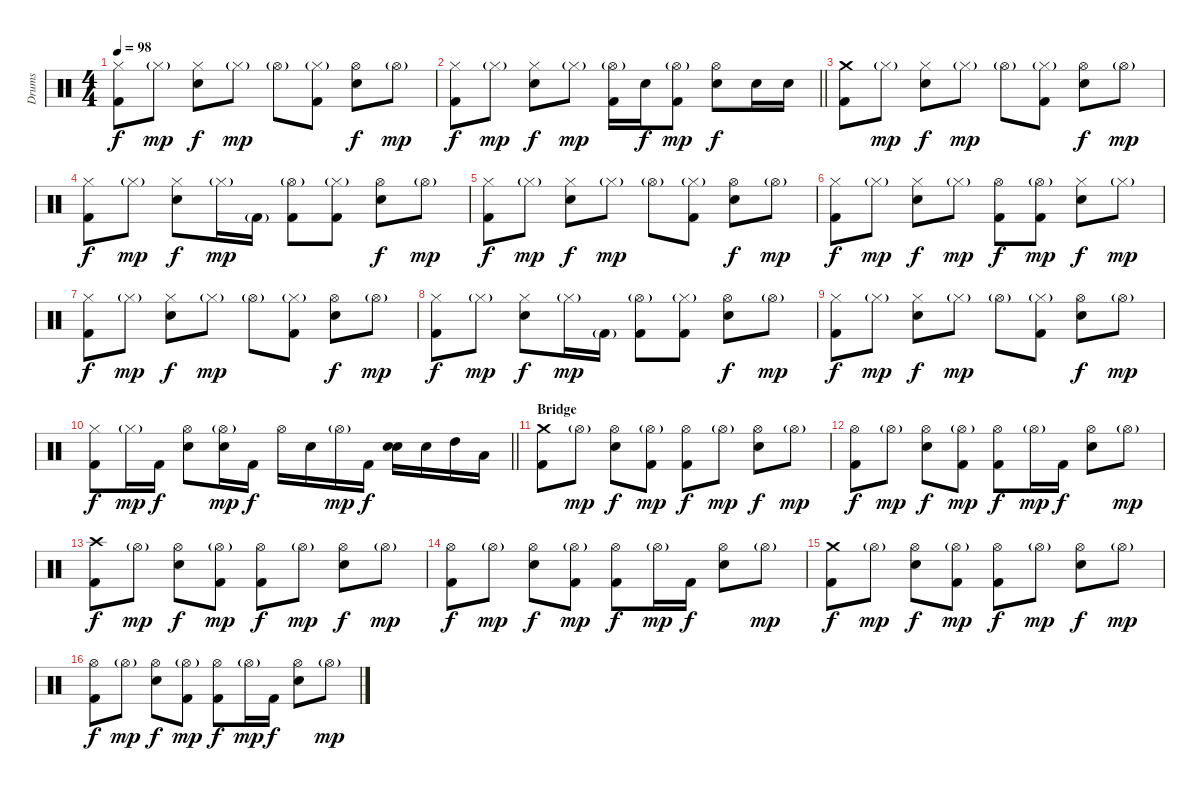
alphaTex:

\track ("Drums " "Drums ") {instrument percussion bank 32}
\staff {score}
\articulation defaults
\ts (4 4)
\tempo 98
\clef neutral
\ks c
("Hi-Hat (closed)" "Kick (hit) 2").8{dy f} "Hi-Hat (closed)"{g}.8{dy mp} ("Hi-Hat (closed)" "Electric Snare (hit)").8{dy f} "Hi-Hat (closed)"{g}.8{dy mp} "Hi-Hat (open)"{g}.8 ("Hi-Hat (closed)"{g} "Kick (hit) 2").8 ("Hi-Hat (open)" "Electric Snare (hit)").8{dy f} "Hi-Hat (open)"{g}.8{dy mp} |
\barLineRight lightlight
("Hi-Hat (closed)" "Kick (hit) 2").8{dy f} "Hi-Hat (closed)"{g}.8{dy mp} ("Hi-Hat (closed)" "Electric Snare (hit)").8{dy f} "Hi-Hat (closed)"{g}.8{dy mp} ("Hi-Hat (open)"{g} "Kick (hit) 2").16 "Electric Snare (hit)".16{dy f} ("Hi-Hat (open)"{g} "Kick (hit) 2").8{dy mp} ("Hi-Hat (open)" "Electric Snare (hit)").8{dy f} "Electric Snare (hit)".16 "Electric Snare (hit)".16 |
("Crash medium (hit)" "Kick (hit) 2").8 "Hi-Hat (closed)"{g}.8{dy mp} ("Hi-Hat (closed)" "Electric Snare (hit)").8{dy f} "Hi-Hat (closed)"{g}.8{dy mp} "Hi-Hat (open)"{g}.8 ("Hi-Hat (closed)"{g} "Kick (hit) 2").8 ("Hi-Hat (open)" "Electric Snare (hit)").8{dy f} "Hi-Hat (open)"{g}.8{dy mp} |
("Hi-Hat (closed)" "Kick (hit) 2").8{dy f} "Hi-Hat (closed)"{g}.8{dy mp} ("Hi-Hat (closed)" "Electric Snare (hit)").8{dy f} "Hi-Hat (closed)"{g}.16{dy mp} "Kick (hit) 2"{g}.16 ("Hi-Hat (open)"{g} "Kick (hit) 2").8 ("Hi-Hat (closed)"{g} "Kick (hit) 2").8 ("Hi-Hat (open)" "Electric Snare (hit)").8{dy f} "Hi-Hat (open)"{g}.8{dy mp} |
("Hi-Hat (closed)" "Kick (hit) 2").8{dy f} "Hi-Hat (closed)"{g}.8{dy mp} ("Hi-Hat (closed)" "Electric Snare (hit)").8{dy f} "Hi-Hat (closed)"{g}.8{dy mp} "Hi-Hat (open)"{g}.8 ("Hi-Hat (closed)"{g} "Kick (hit) 2").8 ("Hi-Hat (open)" "Electric Snare (hit)").8{dy f} "Hi-Hat (open)"{g}.8{dy mp} |
("Hi-Hat (closed)" "Kick (hit) 2").8{dy f} "Hi-Hat (closed)"{g}.8{dy mp} ("Hi-Hat (closed)" "Electric Snare (hit)").8{dy f} "Hi-Hat (closed)"{g}.8{dy mp} ("Hi-Hat (open)" "Kick (hit) 2").8{dy f} ("Hi-Hat (open)"{g} "Kick (hit) 2").8{dy mp} ("Hi-Hat (closed)" "Electric Snare (hit)").8{dy f} "Hi-Hat (closed)"{g}.8{dy mp} |
("Hi-Hat (closed)" "Kick (hit) 2").8{dy f} "Hi-Hat (closed)"{g}.8{dy mp} ("Hi-Hat (closed)" "Electric Snare (hit)").8{dy f} "Hi-Hat (closed)"{g}.8{dy mp} "Hi-Hat (open)"{g}.8 ("Hi-Hat (closed)"{g} "Kick (hit) 2").8 ("Hi-Hat (open)" "Electric Snare (hit)").8{dy f} "Hi-Hat (open)"{g}.8{dy mp} |
("Hi-Hat (closed)" "Kick (hit) 2").8{dy f} "Hi-Hat (closed)"{g}.8{dy mp} ("Hi-Hat (closed)" "Electric Snare (hit)").8{dy f} "Hi-Hat (closed)"{g}.16{dy mp} "Kick (hit) 2"{g}.16 ("Hi-Hat (open)"{g} "Kick (hit) 2").8 ("Hi-Hat (closed)"{g} "Kick (hit) 2").8 ("Hi-Hat (open)" "Electric Snare (hit)").8{dy f} "Hi-Hat (open)"{g}.8{dy mp} |
("Hi-Hat (closed)" "Kick (hit) 2").8{dy f} "Hi-Hat (closed)"{g}.8{dy mp} ("Hi-Hat (closed)" "Electric Snare (hit)").8{dy f} "Hi-Hat (closed)"{g}.8{dy mp} "Hi-Hat (open)"{g}.8 ("Hi-Hat (closed)"{g} "Kick (hit) 2").8 ("Hi-Hat (open)" "Electric Snare (hit)").8{dy f} "Hi-Hat (open)"{g}.8{dy mp} |
\barLineRight lightlight
("Hi-Hat (closed)" "Kick (hit) 2").8{dy f} "Hi-Hat (closed)"{g}.16{dy mp} "Kick (hit) 2".16{dy f} ("Hi-Hat (open)" "Electric Snare (hit)").8 ("Hi-Hat (open)"{g} "Electric Snare (hit)").16{dy mp} "Kick (hit) 2".16{dy f} "Hi-Hat (open)".16 "Electric Snare (hit)".16 "Hi-Hat (open)"{g}.16{dy mp} "Kick (hit) 2".16{dy f} ("Electric Snare (hit)" "Electric Snare (hit)").16{bd 240} "Electric Snare (hit)".16 "High Tom (hit)".16 "Low Tom (hit)".16 |
\section ("" "Bridge")
("Crash medium (hit)" "Kick (hit) 2").8 "Hi-Hat (open)"{g}.8{dy mp} ("Hi-Hat (open)" "Electric Snare (hit)").8{dy f} ("Hi-Hat (open)"{g} "Kick (hit) 2").8{dy mp} ("Hi-Hat (open)" "Kick (hit) 2").8{dy f} "Hi-Hat (open)"{g}.8{dy mp} ("Hi-Hat (open)" "Electric Snare (hit)").8{dy f} "Hi-Hat (open)"{g}.8{dy mp} |
("Hi-Hat (open)" "Kick (hit) 2").8{dy f} "Hi-Hat (open)"{g}.8{dy mp} ("Hi-Hat (open)" "Electric Snare (hit)").8{dy f} ("Hi-Hat (open)"{g} "Kick (hit) 2").8{dy mp} ("Hi-Hat (open)" "Kick (hit) 2").8{dy f} "Hi-Hat (open)"{g}.16{dy mp} "Kick (hit) 2".16{dy f} ("Hi-Hat (open)" "Electric Snare (hit)").8 "Hi-Hat (open)"{g}.8{dy mp} |
("Crash high (hit)" "Kick (hit) 2").8{dy f} "Hi-Hat (open)"{g}.8{dy mp} ("Hi-Hat (open)" "Electric Snare (hit)").8{dy f} ("Hi-Hat (open)"{g} "Kick (hit) 2").8{dy mp} ("Hi-Hat (open)" "Kick (hit) 2").8{dy f} "Hi-Hat (open)"{g}.8{dy mp} ("Hi-Hat (open)" "Electric Snare (hit)").8{dy f} "Hi-Hat (open)"{g}.8{dy mp} |
("Hi-Hat (open)" "Kick (hit) 2").8{dy f} "Hi-Hat (open)"{g}.8{dy mp} ("Hi-Hat (open)" "Electric Snare (hit)").8{dy f} ("Hi-Hat (open)"{g} "Kick (hit) 2").8{dy mp} ("Hi-Hat (open)" "Kick (hit) 2").8{dy f} "Hi-Hat (open)"{g}.16{dy mp} "Kick (hit) 2".16{dy f} ("Hi-Hat (open)" "Electric Snare (hit)").8 "Hi-Hat (open)"{g}.8{dy mp} |
("Crash medium (hit)" "Kick (hit) 2").8{dy f} "Hi-Hat (open)"{g}.8{dy mp} ("Hi-Hat (open)" "Electric Snare (hit)").8{dy f} ("Hi-Hat (open)"{g} "Kick (hit) 2").8{dy mp} ("Hi-Hat (open)" "Kick (hit) 2").8{dy f} "Hi-Hat (open)"{g}.8{dy mp} ("Hi-Hat (open)" "Electric Snare (hit)").8{dy f} "Hi-Hat (open)"{g}.8{dy mp} |
("Hi-Hat (open)" "Kick (hit) 2").8{dy f} "Hi-Hat (open)"{g}.8{dy mp} ("Hi-Hat (open)" "Electric Snare (hit)").8{dy f} ("Hi-Hat (open)"{g} "Kick (hit) 2").8{dy mp} ("Hi-Hat (open)" "Kick (hit) 2").8{dy f} "Hi-Hat (open)"{g}.16{dy mp} "Kick (hit) 2".16{dy f} ("Hi-Hat (open)" "Electric Snare (hit)").8 "Hi-Hat (open)"{g}.8{dy mp}
